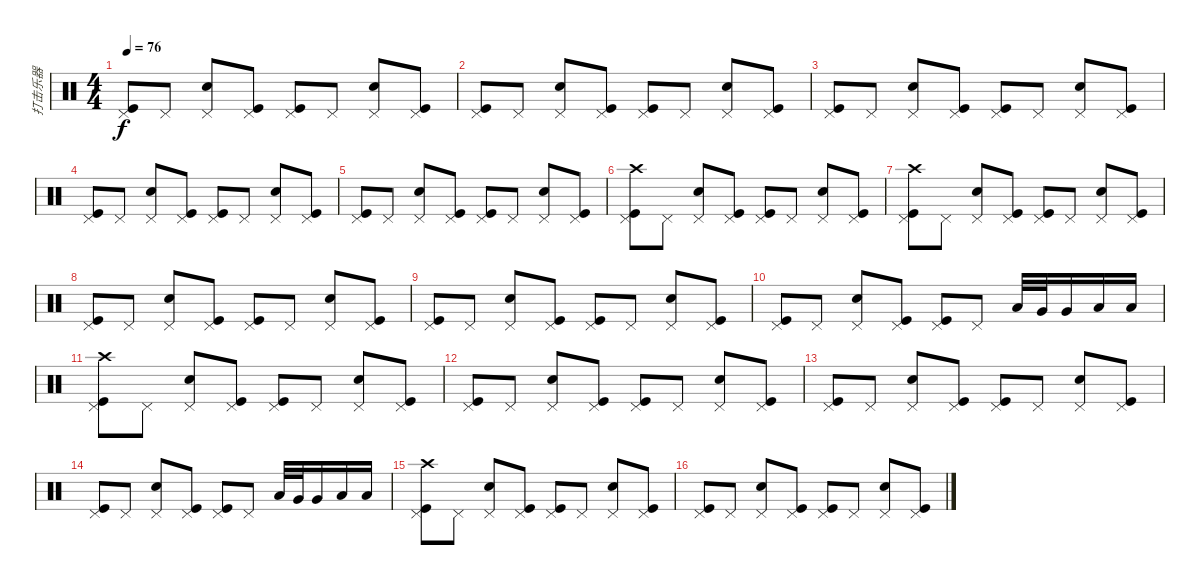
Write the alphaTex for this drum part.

\track ("打击乐器" "打击乐器") {instrument percussion}
\staff {score}
\articulation defaults
\ts (4 4)
\tempo 76
\clef neutral
\ks c
("Pedal Hi-Hat (hit)" "Kick (hit)").8{dy f} "Pedal Hi-Hat (hit)".8 ("Pedal Hi-Hat (hit)" "Snare (hit) 2").8 ("Pedal Hi-Hat (hit)" "Kick (hit)").8 ("Pedal Hi-Hat (hit)" "Kick (hit)").8 "Pedal Hi-Hat (hit)".8 ("Pedal Hi-Hat (hit)" "Snare (hit) 2").8 ("Pedal Hi-Hat (hit)" "Kick (hit)").8 |
("Pedal Hi-Hat (hit)" "Kick (hit)").8 "Pedal Hi-Hat (hit)".8 ("Pedal Hi-Hat (hit)" "Snare (hit) 2").8 ("Pedal Hi-Hat (hit)" "Kick (hit)").8 ("Pedal Hi-Hat (hit)" "Kick (hit)").8 "Pedal Hi-Hat (hit)".8 ("Pedal Hi-Hat (hit)" "Snare (hit) 2").8 ("Pedal Hi-Hat (hit)" "Kick (hit)").8 |
("Pedal Hi-Hat (hit)" "Kick (hit)").8 "Pedal Hi-Hat (hit)".8 ("Pedal Hi-Hat (hit)" "Snare (hit) 2").8 ("Pedal Hi-Hat (hit)" "Kick (hit)").8 ("Pedal Hi-Hat (hit)" "Kick (hit)").8 "Pedal Hi-Hat (hit)".8 ("Pedal Hi-Hat (hit)" "Snare (hit) 2").8 ("Pedal Hi-Hat (hit)" "Kick (hit)").8 |
("Pedal Hi-Hat (hit)" "Kick (hit)").8 "Pedal Hi-Hat (hit)".8 ("Pedal Hi-Hat (hit)" "Snare (hit) 2").8 ("Pedal Hi-Hat (hit)" "Kick (hit)").8 ("Pedal Hi-Hat (hit)" "Kick (hit)").8 "Pedal Hi-Hat (hit)".8 ("Pedal Hi-Hat (hit)" "Snare (hit) 2").8 ("Pedal Hi-Hat (hit)" "Kick (hit)").8 |
("Pedal Hi-Hat (hit)" "Kick (hit)").8 "Pedal Hi-Hat (hit)".8 ("Pedal Hi-Hat (hit)" "Snare (hit) 2").8 ("Pedal Hi-Hat (hit)" "Kick (hit)").8 ("Pedal Hi-Hat (hit)" "Kick (hit)").8 "Pedal Hi-Hat (hit)".8 ("Pedal Hi-Hat (hit)" "Snare (hit) 2").8 ("Pedal Hi-Hat (hit)" "Kick (hit)").8 |
("Pedal Hi-Hat (hit)" "Crash high (hit)" "Kick (hit)").8 "Pedal Hi-Hat (hit)".8 ("Pedal Hi-Hat (hit)" "Snare (hit) 2").8 ("Pedal Hi-Hat (hit)" "Kick (hit)").8 ("Pedal Hi-Hat (hit)" "Kick (hit)").8 "Pedal Hi-Hat (hit)".8 ("Pedal Hi-Hat (hit)" "Snare (hit) 2").8 ("Pedal Hi-Hat (hit)" "Kick (hit)").8 |
("Pedal Hi-Hat (hit)" "Crash high (hit)" "Kick (hit)").8 "Pedal Hi-Hat (hit)".8 ("Pedal Hi-Hat (hit)" "Snare (hit) 2").8 ("Pedal Hi-Hat (hit)" "Kick (hit)").8 ("Pedal Hi-Hat (hit)" "Kick (hit)").8 "Pedal Hi-Hat (hit)".8 ("Pedal Hi-Hat (hit)" "Snare (hit) 2").8 ("Pedal Hi-Hat (hit)" "Kick (hit)").8 |
("Pedal Hi-Hat (hit)" "Kick (hit)").8 "Pedal Hi-Hat (hit)".8 ("Pedal Hi-Hat (hit)" "Snare (hit) 2").8 ("Pedal Hi-Hat (hit)" "Kick (hit)").8 ("Pedal Hi-Hat (hit)" "Kick (hit)").8 "Pedal Hi-Hat (hit)".8 ("Pedal Hi-Hat (hit)" "Snare (hit) 2").8 ("Pedal Hi-Hat (hit)" "Kick (hit)").8 |
("Pedal Hi-Hat (hit)" "Kick (hit)").8 "Pedal Hi-Hat (hit)".8 ("Pedal Hi-Hat (hit)" "Snare (hit) 2").8 ("Pedal Hi-Hat (hit)" "Kick (hit)").8 ("Pedal Hi-Hat (hit)" "Kick (hit)").8 "Pedal Hi-Hat (hit)".8 ("Pedal Hi-Hat (hit)" "Snare (hit) 2").8 ("Pedal Hi-Hat (hit)" "Kick (hit)").8 |
("Pedal Hi-Hat (hit)" "Kick (hit)").8 "Pedal Hi-Hat (hit)".8 ("Pedal Hi-Hat (hit)" "Snare (hit) 2").8 ("Pedal Hi-Hat (hit)" "Kick (hit)").8 ("Pedal Hi-Hat (hit)" "Kick (hit)").8 "Pedal Hi-Hat (hit)".8 "Low Tom (hit)".32 "Very Low Tom (hit)".32 "Very Low Tom (hit)".16 "Low Floor Tom (hit)".16 "Low Floor Tom (hit)".16 |
("Pedal Hi-Hat (hit)" "Crash high (hit)" "Kick (hit)").8 "Pedal Hi-Hat (hit)".8 ("Pedal Hi-Hat (hit)" "Snare (hit) 2").8 ("Pedal Hi-Hat (hit)" "Kick (hit)").8 ("Pedal Hi-Hat (hit)" "Kick (hit)").8 "Pedal Hi-Hat (hit)".8 ("Pedal Hi-Hat (hit)" "Snare (hit) 2").8 ("Pedal Hi-Hat (hit)" "Kick (hit)").8 |
("Pedal Hi-Hat (hit)" "Kick (hit)").8 "Pedal Hi-Hat (hit)".8 ("Pedal Hi-Hat (hit)" "Snare (hit) 2").8 ("Pedal Hi-Hat (hit)" "Kick (hit)").8 ("Pedal Hi-Hat (hit)" "Kick (hit)").8 "Pedal Hi-Hat (hit)".8 ("Pedal Hi-Hat (hit)" "Snare (hit) 2").8 ("Pedal Hi-Hat (hit)" "Kick (hit)").8 |
("Pedal Hi-Hat (hit)" "Kick (hit)").8 "Pedal Hi-Hat (hit)".8 ("Pedal Hi-Hat (hit)" "Snare (hit) 2").8 ("Pedal Hi-Hat (hit)" "Kick (hit)").8 ("Pedal Hi-Hat (hit)" "Kick (hit)").8 "Pedal Hi-Hat (hit)".8 ("Pedal Hi-Hat (hit)" "Snare (hit) 2").8 ("Pedal Hi-Hat (hit)" "Kick (hit)").8 |
("Pedal Hi-Hat (hit)" "Kick (hit)").8 "Pedal Hi-Hat (hit)".8 ("Pedal Hi-Hat (hit)" "Snare (hit) 2").8 ("Pedal Hi-Hat (hit)" "Kick (hit)").8 ("Pedal Hi-Hat (hit)" "Kick (hit)").8 "Pedal Hi-Hat (hit)".8 "Low Tom (hit)".32 "Very Low Tom (hit)".32 "Very Low Tom (hit)".16 "Low Floor Tom (hit)".16 "Low Floor Tom (hit)".16 |
("Pedal Hi-Hat (hit)" "Crash high (hit)" "Kick (hit)").8 "Pedal Hi-Hat (hit)".8 ("Pedal Hi-Hat (hit)" "Snare (hit) 2").8 ("Pedal Hi-Hat (hit)" "Kick (hit)").8 ("Pedal Hi-Hat (hit)" "Kick (hit)").8 "Pedal Hi-Hat (hit)".8 ("Pedal Hi-Hat (hit)" "Snare (hit) 2").8 ("Pedal Hi-Hat (hit)" "Kick (hit)").8 |
("Pedal Hi-Hat (hit)" "Kick (hit)").8 "Pedal Hi-Hat (hit)".8 ("Pedal Hi-Hat (hit)" "Snare (hit) 2").8 ("Pedal Hi-Hat (hit)" "Kick (hit)").8 ("Pedal Hi-Hat (hit)" "Kick (hit)").8 "Pedal Hi-Hat (hit)".8 ("Pedal Hi-Hat (hit)" "Snare (hit) 2").8 ("Pedal Hi-Hat (hit)" "Kick (hit)").8
